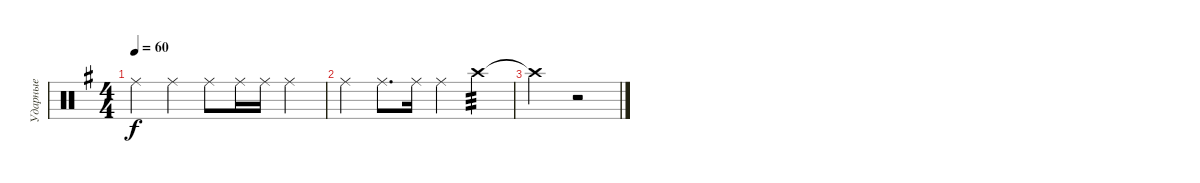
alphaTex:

\track ("Ударные" "Ударные") {instrument percussion}
\staff {score}
\articulation defaults
\ts (4 4)
\tempo 60
\clef neutral
\ks g "Ride (middle)".4{dy f} "Ride (middle)".4 "Ride (middle)".8 "Ride (middle)".16 "Ride (middle)".16 "Ride (middle)".4
|
"Ride (middle)".4 "Ride (middle)".8{d} "Ride (middle)".16 "Ride (middle)".4 "Crash high (hit)".4{tp 3} |
"Crash high (hit)"{t}.2 r.2
